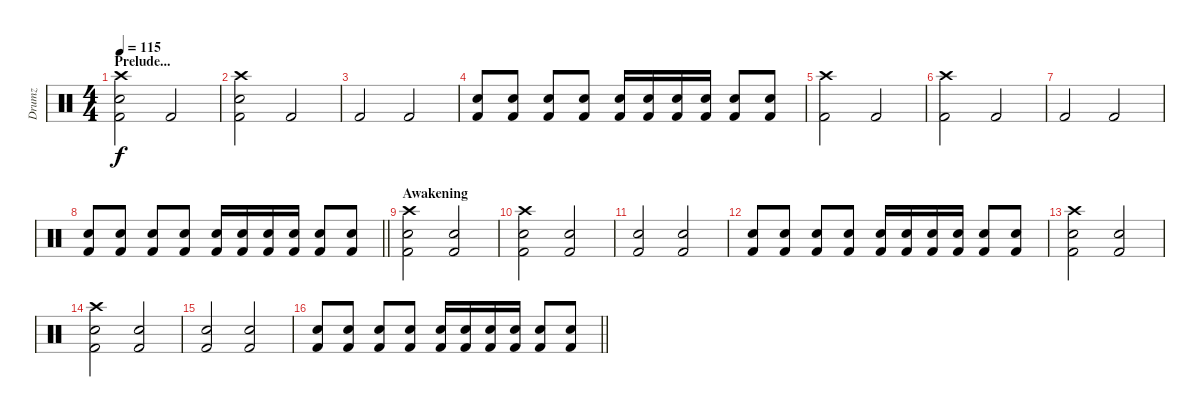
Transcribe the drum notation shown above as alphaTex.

\track ("Drumz" "Drumz") {instrument percussion}
\staff {score}
\articulation defaults
\ts (4 4)
\section ("" "Prelude...")
\tempo 115
\clef neutral
\ks c
("Crash high (hit)" "Snare (hit) 2" "Kick (hit) 2").2{dy f} "Kick (hit) 2".2 |
("Crash high (hit)" "Snare (hit) 2" "Kick (hit) 2").2 "Kick (hit) 2".2 |
"Kick (hit) 2".2 "Kick (hit) 2".2 |
("Snare (hit) 2" "Kick (hit) 2").8 ("Snare (hit) 2" "Kick (hit) 2").8 ("Snare (hit) 2" "Kick (hit) 2").8 ("Snare (hit) 2" "Kick (hit) 2").8 ("Snare (hit) 2" "Kick (hit) 2").16 ("Snare (hit) 2" "Kick (hit) 2").16 ("Snare (hit) 2" "Kick (hit) 2").16 ("Snare (hit) 2" "Kick (hit) 2").16 ("Snare (hit) 2" "Kick (hit) 2").8 ("Snare (hit) 2" "Kick (hit) 2").8 |
("Crash high (hit)" "Kick (hit) 2").2 "Kick (hit) 2".2 |
("Crash high (hit)" "Kick (hit) 2").2 "Kick (hit) 2".2 |
"Kick (hit) 2".2 "Kick (hit) 2".2 |
\barLineRight lightlight
("Snare (hit) 2" "Kick (hit) 2").8 ("Snare (hit) 2" "Kick (hit) 2").8 ("Snare (hit) 2" "Kick (hit) 2").8 ("Snare (hit) 2" "Kick (hit) 2").8 ("Snare (hit) 2" "Kick (hit) 2").16 ("Snare (hit) 2" "Kick (hit) 2").16 ("Snare (hit) 2" "Kick (hit) 2").16 ("Snare (hit) 2" "Kick (hit) 2").16 ("Snare (hit) 2" "Kick (hit) 2").8 ("Snare (hit) 2" "Kick (hit) 2").8 |
\section ("" "Awakening")
("Crash high (hit)" "Snare (hit) 2" "Kick (hit) 2").2 ("Snare (hit) 2" "Kick (hit) 2").2 |
("Crash high (hit)" "Snare (hit) 2" "Kick (hit) 2").2 ("Snare (hit) 2" "Kick (hit) 2").2 |
("Snare (hit) 2" "Kick (hit) 2").2 ("Snare (hit) 2" "Kick (hit) 2").2 |
("Snare (hit) 2" "Kick (hit) 2").8 ("Snare (hit) 2" "Kick (hit) 2").8 ("Snare (hit) 2" "Kick (hit) 2").8 ("Snare (hit) 2" "Kick (hit) 2").8 ("Snare (hit) 2" "Kick (hit) 2").16 ("Snare (hit) 2" "Kick (hit) 2").16 ("Snare (hit) 2" "Kick (hit) 2").16 ("Snare (hit) 2" "Kick (hit) 2").16 ("Snare (hit) 2" "Kick (hit) 2").8 ("Snare (hit) 2" "Kick (hit) 2").8 |
("Crash high (hit)" "Snare (hit) 2" "Kick (hit) 2").2 ("Snare (hit) 2" "Kick (hit) 2").2 |
("Crash high (hit)" "Snare (hit) 2" "Kick (hit) 2").2 ("Snare (hit) 2" "Kick (hit) 2").2 |
("Snare (hit) 2" "Kick (hit) 2").2 ("Snare (hit) 2" "Kick (hit) 2").2 |
\barLineRight lightlight
("Snare (hit) 2" "Kick (hit) 2").8 ("Snare (hit) 2" "Kick (hit) 2").8 ("Snare (hit) 2" "Kick (hit) 2").8 ("Snare (hit) 2" "Kick (hit) 2").8 ("Snare (hit) 2" "Kick (hit) 2").16 ("Snare (hit) 2" "Kick (hit) 2").16 ("Snare (hit) 2" "Kick (hit) 2").16 ("Snare (hit) 2" "Kick (hit) 2").16 ("Snare (hit) 2" "Kick (hit) 2").8 ("Snare (hit) 2" "Kick (hit) 2").8
